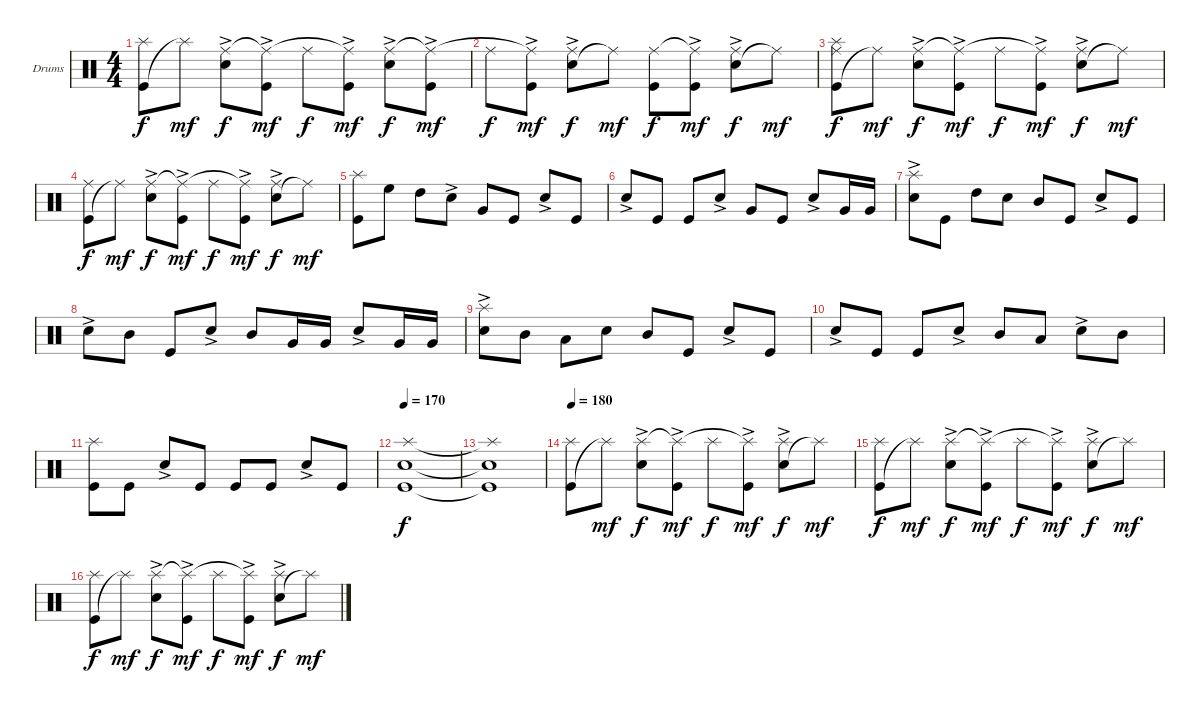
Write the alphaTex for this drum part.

\defaultSystemsLayout 4
\bracketExtendMode groupsimilarinstruments
\firstSystemTrackNameOrientation horizontal
\otherSystemsTrackNameOrientation horizontal
\track ("Drumkit" "Drums") {instrument percussion}
\staff {score}
\articulation defaults
\ts (4 4)
\tempo (180 hide)
\clef neutral
\ks c
("Kick (hit)" "Splash (hit)").8{dy f} "Splash (hit)"{t}.8{dy mf} ("Snare (hit) 2"{ac} "Ride (middle)").8{dy f} ("Kick (hit)"{ac} "Ride (middle)"{t}).8{dy mf} "Ride (middle)".8{dy f} ("Kick (hit)"{ac} "Ride (middle)"{t}).8{dy mf} ("Snare (hit) 2"{ac} "Ride (middle)").8{dy f} ("Kick (hit)"{ac} "Ride (middle)"{t}).8{dy mf} |
"Ride (middle)".8{dy f} ("Kick (hit)"{ac} "Ride (middle)"{t}).8{dy mf} ("Snare (hit) 2"{ac} "Ride (middle)").8{dy f} "Ride (middle)"{t}.8{dy mf} ("Kick (hit)" "Ride (middle)").8{dy f} ("Kick (hit)"{ac} "Ride (middle)"{t}).8{dy mf} ("Snare (hit) 2"{ac} "Ride (middle)").8{dy f} "Ride (middle)"{t}.8{dy mf} |
("Kick (hit)" "Splash (hit)" "Ride (middle)").8{dy f} "Ride (middle)"{t}.8{dy mf} ("Snare (hit) 2"{ac} "Ride (middle)").8{dy f} ("Kick (hit)"{ac} "Ride (middle)"{t}).8{dy mf} "Ride (middle)".8{dy f} ("Kick (hit)"{ac} "Ride (middle)"{t}).8{dy mf} ("Snare (hit) 2"{ac} "Ride (middle)").8{dy f} "Ride (middle)"{t}.8{dy mf} |
("Kick (hit)" "Ride (middle)").8{dy f} "Ride (middle)"{t}.8{dy mf} ("Snare (hit) 2"{ac} "Ride (middle)").8{dy f} ("Kick (hit)"{ac} "Ride (middle)"{t}).8{dy mf} "Ride (middle)".8{dy f} ("Kick (hit)"{ac} "Ride (middle)"{t}).8{dy mf} ("Snare (hit) 2"{ac} "Ride (middle)").8{dy f} "Ride (middle)"{t}.8{dy mf} |
("Kick (hit)" "Splash (hit)").8 "High Floor Tom (hit)".8 "High Tom (hit)".8 "Snare (hit) 2"{ac}.8 "Very Low Tom (hit)".8 "Kick (hit)".8 "Snare (hit) 2"{ac}.8 "Kick (hit)".8 |
"Snare (hit) 2"{ac}.8 "Kick (hit)".8 "Kick (hit)".8 "Snare (hit) 2"{ac}.8 "Very Low Tom (hit)".8 "Kick (hit)".8 "Snare (hit) 2"{ac}.8 "Very Low Tom (hit)".16 "Very Low Tom (hit)".16 |
("Splash (hit)" "Snare (hit) 2"{ac}).8 "Kick (hit)".8 "High Tom (hit)".8 "Snare (hit) 2".8 "Mid Tom (hit)".8 "Kick (hit)".8 "Snare (hit) 2"{ac}.8 "Kick (hit)".8 |
"Snare (hit) 2"{ac}.8 "Mid Tom (hit)".8 "Kick (hit)".8 "Snare (hit) 2"{ac}.8 "Mid Tom (hit)".8 "Very Low Tom (hit)".16 "Very Low Tom (hit)".16 "Snare (hit) 2"{ac}.8 "Very Low Tom (hit)".16 "Very Low Tom (hit)".16 |
("Snare (hit) 2"{ac} "Splash (hit)").8 "Mid Tom (hit)".8 "Low Tom (hit)".8 "Snare (hit) 2".8 "Mid Tom (hit)".8 "Kick (hit)".8 "Snare (hit) 2"{ac}.8 "Kick (hit)".8 |
"Snare (hit) 2"{ac}.8 "Kick (hit)".8 "Kick (hit)".8 "Snare (hit) 2"{ac}.8 "Mid Tom (hit)".8 "Low Tom (hit)".8 "Snare (hit) 2"{ac}.8 "Mid Tom (hit)".8 |
("Kick (hit)" "Splash (hit)").8 "Kick (hit)".8 "Snare (hit) 2"{ac}.8 "Kick (hit)".8 "Kick (hit)".8 "Kick (hit)".8 "Snare (hit) 2"{ac}.8 "Kick (hit)".8 |
\tempo 170
("Kick (hit)" "Snare (hit) 2" "Splash (hit)").1{dy f} |
("Kick (hit)"{t} "Snare (hit) 2"{t} "Splash (hit)"{t}).1 |
\tempo (180 0.00625)
("Kick (hit)" "Splash (hit)").8 "Splash (hit)"{t}.8{dy mf} ("Snare (hit) 2"{ac} "Splash (hit)").8{dy f} ("Kick (hit)"{ac} "Splash (hit)"{t}).8{dy mf} "Splash (hit)".8{dy f} ("Kick (hit)"{ac} "Splash (hit)"{t}).8{dy mf} ("Snare (hit) 2"{ac} "Splash (hit)").8{dy f} "Splash (hit)"{t}.8{dy mf} |
("Kick (hit)" "Splash (hit)").8{dy f} "Splash (hit)"{t}.8{dy mf} ("Snare (hit) 2"{ac} "Splash (hit)").8{dy f} ("Kick (hit)"{ac} "Splash (hit)"{t}).8{dy mf} "Splash (hit)".8{dy f} ("Kick (hit)"{ac} "Splash (hit)"{t}).8{dy mf} ("Snare (hit) 2"{ac} "Splash (hit)").8{dy f} "Splash (hit)"{t}.8{dy mf} |
("Kick (hit)" "Splash (hit)").8{dy f} "Splash (hit)"{t}.8{dy mf} ("Snare (hit) 2"{ac} "Splash (hit)").8{dy f} ("Kick (hit)"{ac} "Splash (hit)"{t}).8{dy mf} "Splash (hit)".8{dy f} ("Kick (hit)"{ac} "Splash (hit)"{t}).8{dy mf} ("Snare (hit) 2"{ac} "Splash (hit)").8{dy f} "Splash (hit)"{t}.8{dy mf}
